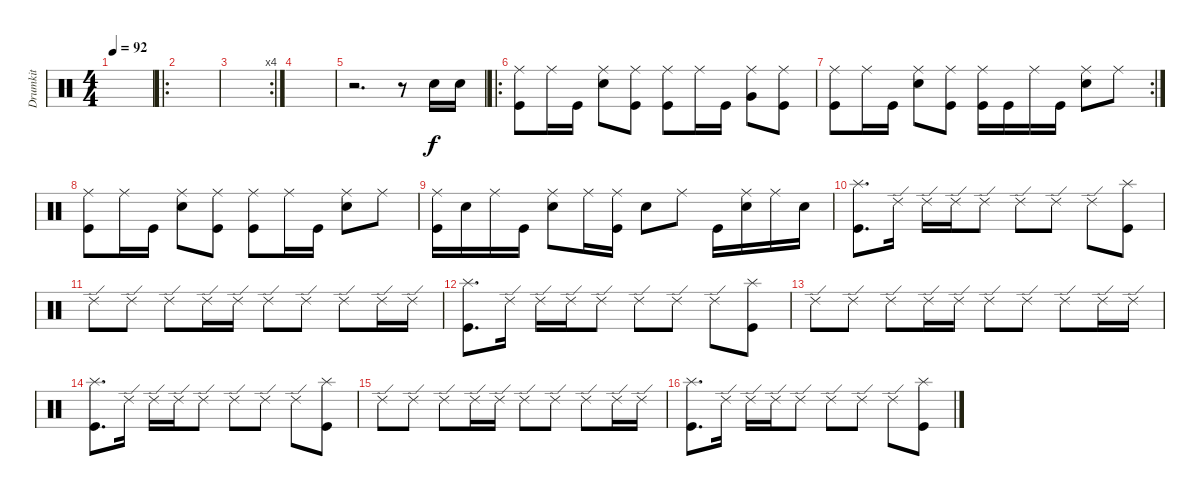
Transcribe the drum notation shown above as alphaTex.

\track ("Drumkit" "Drumkit") {instrument percussion}
\staff {score}
\articulation defaults
\ts (4 4)
\tempo 92
\clef neutral
\ks c
|
\ro
|
\rc 4
|
|
r.2{d} r.8 "Snare (hit) 2".16 "Snare (hit) 2".16 |
\ro
("Ride (middle)" "Kick (hit)").8 "Ride (middle)".16 "Kick (hit)".16 ("Ride (middle)" "Snare (hit) 2").8 ("Ride (middle)" "Kick (hit)").8 ("Ride (middle)" "Kick (hit)").8 "Ride (middle)".16 "Kick (hit)".16 ("Ride (middle)" "Very Low Tom (hit)").8 ("Ride (middle)" "Kick (hit)").8 |
\rc 2
("Ride (middle)" "Kick (hit)").8 "Ride (middle)".16 "Kick (hit)".16 ("Ride (middle)" "Snare (hit) 2").8 ("Ride (middle)" "Kick (hit)").8 ("Ride (middle)" "Kick (hit)").16 "Kick (hit)".16 "Ride (middle)".16 "Kick (hit)".16 ("Ride (middle)" "Snare (hit) 2").8 "Ride (middle)".8 |
("Ride (middle)" "Kick (hit)").8 "Ride (middle)".16 "Kick (hit)".16 ("Ride (middle)" "Snare (hit) 2").8 ("Ride (middle)" "Kick (hit)").8 ("Kick (hit)" "Ride (middle)").8 "Ride (middle)".16 "Kick (hit)".16 ("Ride (middle)" "Snare (hit) 2").8 "Ride (middle)".8 |
("Ride (middle)" "Kick (hit)").16 "Snare (hit) 2".16 "Ride (middle)".16 "Kick (hit)".16 ("Ride (middle)" "Snare (hit) 2").8 "Ride (middle)".16 ("Ride (middle)" "Kick (hit)").16 "Snare (hit) 2".8 "Ride (middle)".8 "Kick (hit)".16 ("Ride (middle)" "Snare (hit) 2").16 "Ride (middle)".16 "Snare (hit) 2".16 |
("Kick (hit)" "Splash (hit)").8{d} "Ride (edge) 2".16 "Ride (edge) 2".16 "Ride (edge) 2".16 "Ride (edge) 2".8 "Ride (edge) 2".8 "Ride (edge) 2".8 "Ride (edge) 2".8 ("Splash (hit)" "Kick (hit)").8 |
"Ride (edge) 2".8 "Ride (edge) 2".8 "Ride (edge) 2".8 "Ride (edge) 2".16 "Ride (edge) 2".16 "Ride (edge) 2".8 "Ride (edge) 2".8 "Ride (edge) 2".8 "Ride (edge) 2".16 "Ride (edge) 2".16 |
("Kick (hit)" "Splash (hit)").8{d} "Ride (edge) 2".16 "Ride (edge) 2".16 "Ride (edge) 2".16 "Ride (edge) 2".8 "Ride (edge) 2".8 "Ride (edge) 2".8 "Ride (edge) 2".8 ("Splash (hit)" "Kick (hit)").8 |
"Ride (edge) 2".8 "Ride (edge) 2".8 "Ride (edge) 2".8 "Ride (edge) 2".16 "Ride (edge) 2".16 "Ride (edge) 2".8 "Ride (edge) 2".8 "Ride (edge) 2".8 "Ride (edge) 2".16 "Ride (edge) 2".16 |
("Kick (hit)" "Splash (hit)").8{d} "Ride (edge) 2".16 "Ride (edge) 2".16 "Ride (edge) 2".16 "Ride (edge) 2".8 "Ride (edge) 2".8 "Ride (edge) 2".8 "Ride (edge) 2".8 ("Splash (hit)" "Kick (hit)").8 |
"Ride (edge) 2".8 "Ride (edge) 2".8 "Ride (edge) 2".8 "Ride (edge) 2".16 "Ride (edge) 2".16 "Ride (edge) 2".8 "Ride (edge) 2".8 "Ride (edge) 2".8 "Ride (edge) 2".16 "Ride (edge) 2".16 |
("Kick (hit)" "Splash (hit)").8{d} "Ride (edge) 2".16 "Ride (edge) 2".16 "Ride (edge) 2".16 "Ride (edge) 2".8 "Ride (edge) 2".8 "Ride (edge) 2".8 "Ride (edge) 2".8 ("Splash (hit)" "Kick (hit)").8
